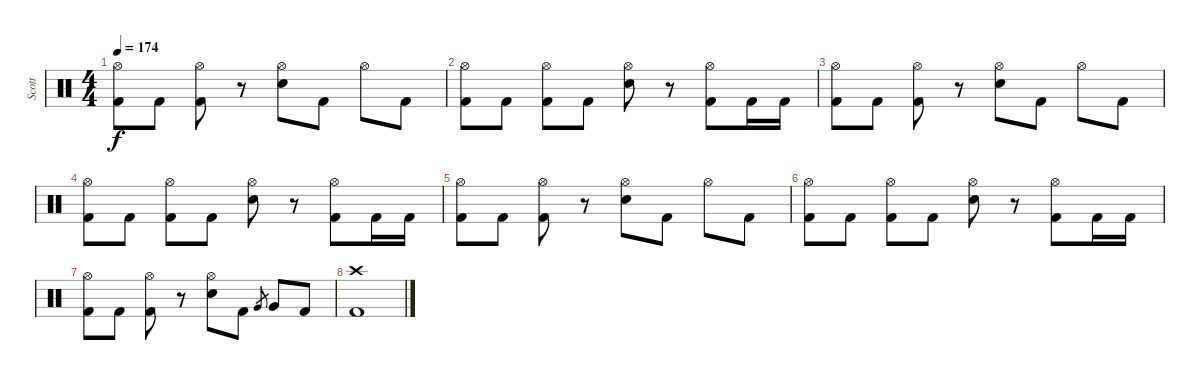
\track ("Scott" "Scott") {instrument percussion}
\staff {score}
\articulation defaults
\ts (4 4)
\tempo 174
\clef neutral
\ks c
("Hi-Hat (open)" "Kick (hit) 2").8{dy f} "Kick (hit) 2".8 ("Hi-Hat (open)" "Kick (hit) 2").8 r.8 ("Hi-Hat (open)" "Electric Snare (hit)").8 "Kick (hit) 2".8 "Hi-Hat (open)".8 "Kick (hit) 2".8 |
("Hi-Hat (open)" "Kick (hit) 2").8 "Kick (hit) 2".8 ("Hi-Hat (open)" "Kick (hit) 2").8 "Kick (hit) 2".8 ("Hi-Hat (open)" "Electric Snare (hit)").8 r.8 ("Hi-Hat (open)" "Kick (hit) 2").8 "Kick (hit) 2".16 "Kick (hit) 2".16 |
("Hi-Hat (open)" "Kick (hit) 2").8 "Kick (hit) 2".8 ("Hi-Hat (open)" "Kick (hit) 2").8 r.8 ("Hi-Hat (open)" "Electric Snare (hit)").8 "Kick (hit) 2".8 "Hi-Hat (open)".8 "Kick (hit) 2".8 |
("Hi-Hat (open)" "Kick (hit) 2").8 "Kick (hit) 2".8 ("Hi-Hat (open)" "Kick (hit) 2").8 "Kick (hit) 2".8 ("Hi-Hat (open)" "Electric Snare (hit)").8 r.8 ("Hi-Hat (open)" "Kick (hit) 2").8 "Kick (hit) 2".16 "Kick (hit) 2".16 |
("Hi-Hat (open)" "Kick (hit) 2").8 "Kick (hit) 2".8 ("Hi-Hat (open)" "Kick (hit) 2").8 r.8 ("Hi-Hat (open)" "Electric Snare (hit)").8 "Kick (hit) 2".8 "Hi-Hat (open)".8 "Kick (hit) 2".8 |
("Hi-Hat (open)" "Kick (hit) 2").8 "Kick (hit) 2".8 ("Hi-Hat (open)" "Kick (hit) 2").8 "Kick (hit) 2".8 ("Hi-Hat (open)" "Electric Snare (hit)").8 r.8 ("Hi-Hat (open)" "Kick (hit) 2").8 "Kick (hit) 2".16 "Kick (hit) 2".16 |
("Hi-Hat (open)" "Kick (hit) 2").8 "Kick (hit) 2".8 ("Hi-Hat (open)" "Kick (hit) 2").8 r.8 ("Hi-Hat (open)" "Electric Snare (hit)").8 "Kick (hit) 2".8 "Very Low Tom (hit)".8{gr} "Very Low Tom (hit)".8 "Kick (hit) 2".8 |
("Crash high (hit)" "Kick (hit) 2").1
